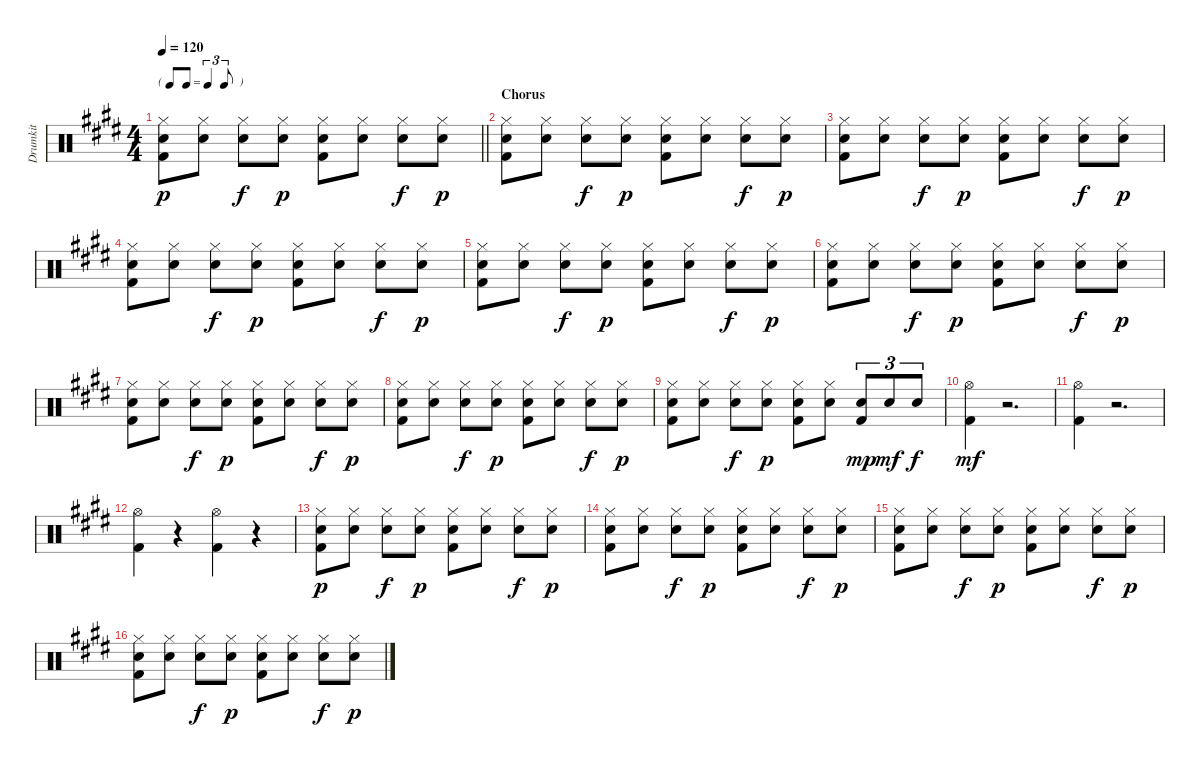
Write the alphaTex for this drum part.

\track ("Drumkit" "Drumkit") {instrument percussion}
\staff {score}
\articulation defaults
\ts (4 4)
\tf triplet8th
\tempo 120
\clef neutral
\barLineRight lightlight
\ks e
("Hi-Hat (closed)" "Snare (hit) 2" "Kick (hit) 2").8{dy p} ("Hi-Hat (closed)" "Snare (hit) 2").8 ("Hi-Hat (closed)" "Snare (hit) 2").8{dy f} ("Hi-Hat (closed)" "Snare (hit) 2").8{dy p} ("Hi-Hat (closed)" "Snare (hit) 2" "Kick (hit) 2").8 ("Hi-Hat (closed)" "Snare (hit) 2").8 ("Hi-Hat (closed)" "Snare (hit) 2").8{dy f} ("Hi-Hat (closed)" "Snare (hit) 2").8{dy p} |
\section ("" "Chorus")
("Hi-Hat (closed)" "Snare (hit) 2" "Kick (hit) 2").8 ("Hi-Hat (closed)" "Snare (hit) 2").8 ("Hi-Hat (closed)" "Snare (hit) 2").8{dy f} ("Hi-Hat (closed)" "Snare (hit) 2").8{dy p} ("Hi-Hat (closed)" "Snare (hit) 2" "Kick (hit) 2").8 ("Hi-Hat (closed)" "Snare (hit) 2").8 ("Hi-Hat (closed)" "Snare (hit) 2").8{dy f} ("Hi-Hat (closed)" "Snare (hit) 2").8{dy p} |
("Hi-Hat (closed)" "Snare (hit) 2" "Kick (hit) 2").8 ("Hi-Hat (closed)" "Snare (hit) 2").8 ("Hi-Hat (closed)" "Snare (hit) 2").8{dy f} ("Hi-Hat (closed)" "Snare (hit) 2").8{dy p} ("Hi-Hat (closed)" "Snare (hit) 2" "Kick (hit) 2").8 ("Hi-Hat (closed)" "Snare (hit) 2").8 ("Hi-Hat (closed)" "Snare (hit) 2").8{dy f} ("Hi-Hat (closed)" "Snare (hit) 2").8{dy p} |
("Hi-Hat (closed)" "Snare (hit) 2" "Kick (hit) 2").8 ("Hi-Hat (closed)" "Snare (hit) 2").8 ("Hi-Hat (closed)" "Snare (hit) 2").8{dy f} ("Hi-Hat (closed)" "Snare (hit) 2").8{dy p} ("Hi-Hat (closed)" "Snare (hit) 2" "Kick (hit) 2").8 ("Hi-Hat (closed)" "Snare (hit) 2").8 ("Hi-Hat (closed)" "Snare (hit) 2").8{dy f} ("Hi-Hat (closed)" "Snare (hit) 2").8{dy p} |
("Hi-Hat (closed)" "Snare (hit) 2" "Kick (hit) 2").8 ("Hi-Hat (closed)" "Snare (hit) 2").8 ("Hi-Hat (closed)" "Snare (hit) 2").8{dy f} ("Hi-Hat (closed)" "Snare (hit) 2").8{dy p} ("Hi-Hat (closed)" "Snare (hit) 2" "Kick (hit) 2").8 ("Hi-Hat (closed)" "Snare (hit) 2").8 ("Hi-Hat (closed)" "Snare (hit) 2").8{dy f} ("Hi-Hat (closed)" "Snare (hit) 2").8{dy p} |
("Hi-Hat (closed)" "Snare (hit) 2" "Kick (hit) 2").8 ("Hi-Hat (closed)" "Snare (hit) 2").8 ("Hi-Hat (closed)" "Snare (hit) 2").8{dy f} ("Hi-Hat (closed)" "Snare (hit) 2").8{dy p} ("Hi-Hat (closed)" "Snare (hit) 2" "Kick (hit) 2").8 ("Hi-Hat (closed)" "Snare (hit) 2").8 ("Hi-Hat (closed)" "Snare (hit) 2").8{dy f} ("Hi-Hat (closed)" "Snare (hit) 2").8{dy p} |
("Hi-Hat (closed)" "Snare (hit) 2" "Kick (hit) 2").8 ("Hi-Hat (closed)" "Snare (hit) 2").8 ("Hi-Hat (closed)" "Snare (hit) 2").8{dy f} ("Hi-Hat (closed)" "Snare (hit) 2").8{dy p} ("Hi-Hat (closed)" "Snare (hit) 2" "Kick (hit) 2").8 ("Hi-Hat (closed)" "Snare (hit) 2").8 ("Hi-Hat (closed)" "Snare (hit) 2").8{dy f} ("Hi-Hat (closed)" "Snare (hit) 2").8{dy p} |
("Hi-Hat (closed)" "Snare (hit) 2" "Kick (hit) 2").8 ("Hi-Hat (closed)" "Snare (hit) 2").8 ("Hi-Hat (closed)" "Snare (hit) 2").8{dy f} ("Hi-Hat (closed)" "Snare (hit) 2").8{dy p} ("Hi-Hat (closed)" "Snare (hit) 2" "Kick (hit) 2").8 ("Hi-Hat (closed)" "Snare (hit) 2").8 ("Hi-Hat (closed)" "Snare (hit) 2").8{dy f} ("Hi-Hat (closed)" "Snare (hit) 2").8{dy p} |
("Hi-Hat (closed)" "Snare (hit) 2" "Kick (hit) 2").8 ("Hi-Hat (closed)" "Snare (hit) 2").8 ("Hi-Hat (closed)" "Snare (hit) 2").8{dy f} ("Hi-Hat (closed)" "Snare (hit) 2").8{dy p} ("Hi-Hat (closed)" "Snare (hit) 2" "Kick (hit) 2").8 ("Hi-Hat (closed)" "Snare (hit) 2").8 ("Snare (hit) 2" "Kick (hit) 2").8{tu (3 2) dy mp} "Snare (hit) 2".8{tu (3 2) dy mf} "Snare (hit) 2".8{tu (3 2) dy f} |
("Kick (hit) 2" "Hi-Hat (open)").4{dy mf} r.2{d} |
("Kick (hit) 2" "Hi-Hat (open)").4 r.2{d} |
("Kick (hit) 2" "Hi-Hat (open)").4 r.4 ("Kick (hit) 2" "Hi-Hat (open)").4 r.4 |
("Hi-Hat (closed)" "Snare (hit) 2" "Kick (hit) 2").8{dy p} ("Hi-Hat (closed)" "Snare (hit) 2").8 ("Hi-Hat (closed)" "Snare (hit) 2").8{dy f} ("Hi-Hat (closed)" "Snare (hit) 2").8{dy p} ("Hi-Hat (closed)" "Snare (hit) 2" "Kick (hit) 2").8 ("Hi-Hat (closed)" "Snare (hit) 2").8 ("Hi-Hat (closed)" "Snare (hit) 2").8{dy f} ("Hi-Hat (closed)" "Snare (hit) 2").8{dy p} |
("Hi-Hat (closed)" "Snare (hit) 2" "Kick (hit) 2").8 ("Hi-Hat (closed)" "Snare (hit) 2").8 ("Hi-Hat (closed)" "Snare (hit) 2").8{dy f} ("Hi-Hat (closed)" "Snare (hit) 2").8{dy p} ("Hi-Hat (closed)" "Snare (hit) 2" "Kick (hit) 2").8 ("Hi-Hat (closed)" "Snare (hit) 2").8 ("Hi-Hat (closed)" "Snare (hit) 2").8{dy f} ("Hi-Hat (closed)" "Snare (hit) 2").8{dy p} |
("Hi-Hat (closed)" "Snare (hit) 2" "Kick (hit) 2").8 ("Hi-Hat (closed)" "Snare (hit) 2").8 ("Hi-Hat (closed)" "Snare (hit) 2").8{dy f} ("Hi-Hat (closed)" "Snare (hit) 2").8{dy p} ("Hi-Hat (closed)" "Snare (hit) 2" "Kick (hit) 2").8 ("Hi-Hat (closed)" "Snare (hit) 2").8 ("Hi-Hat (closed)" "Snare (hit) 2").8{dy f} ("Hi-Hat (closed)" "Snare (hit) 2").8{dy p} |
("Hi-Hat (closed)" "Snare (hit) 2" "Kick (hit) 2").8 ("Hi-Hat (closed)" "Snare (hit) 2").8 ("Hi-Hat (closed)" "Snare (hit) 2").8{dy f} ("Hi-Hat (closed)" "Snare (hit) 2").8{dy p} ("Hi-Hat (closed)" "Snare (hit) 2" "Kick (hit) 2").8 ("Hi-Hat (closed)" "Snare (hit) 2").8 ("Hi-Hat (closed)" "Snare (hit) 2").8{dy f} ("Hi-Hat (closed)" "Snare (hit) 2").8{dy p}
